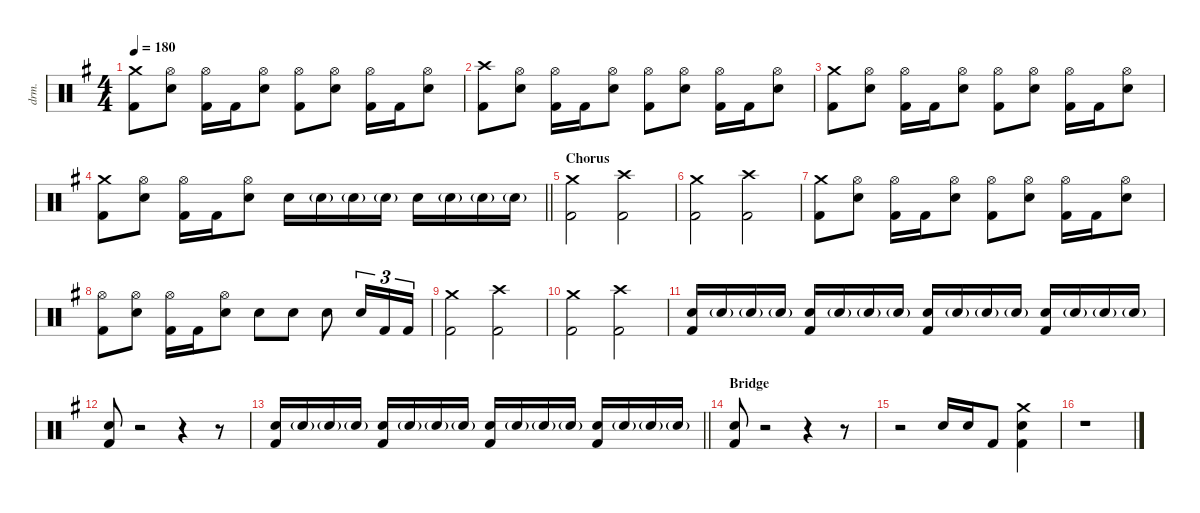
\defaultSystemsLayout 4
\hideDynamics
\bracketExtendMode nobrackets
\otherSystemsTrackNameOrientation horizontal
\track ("Lars Ulrich" "drm.") {instrument percussion}
\staff {score}
\articulation defaults
\ts (4 4)
\tempo 180
\clef neutral
\ks eminor
("Crash medium (hit)"{acc forcenatural} "Kick (hit) 2"{acc forcenatural}).8{dy f beam Down} ("Hi-Hat (open)"{acc forcenatural} "Snare (hit) 2"{acc forcenatural}).8{beam Down} ("Hi-Hat (open)"{acc forcenatural} "Kick (hit) 2"{acc forcenatural}).16{beam Down} "Kick (hit) 2"{acc forcenatural}.16{beam Down} ("Hi-Hat (open)"{acc forcenatural} "Snare (hit) 2"{acc forcenatural}).8{beam Down} ("Hi-Hat (open)"{acc forcenatural} "Kick (hit) 2"{acc forcenatural}).8{beam Down} ("Hi-Hat (open)"{acc forcenatural} "Snare (hit) 2"{acc forcenatural}).8{beam Down} ("Hi-Hat (open)"{acc forcenatural} "Kick (hit) 2"{acc forcenatural}).16{beam Down} "Kick (hit) 2"{acc forcenatural}.16{beam Down} ("Hi-Hat (open)"{acc forcenatural} "Snare (hit) 2"{acc forcenatural}).8{beam Down} |
("Crash high (hit)"{acc forcenatural} "Kick (hit) 2"{acc forcenatural}).8{beam Down} ("Hi-Hat (open)"{acc forcenatural} "Snare (hit) 2"{acc forcenatural}).8{beam Down} ("Hi-Hat (open)"{acc forcenatural} "Kick (hit) 2"{acc forcenatural}).16{beam Down} "Kick (hit) 2"{acc forcenatural}.16{beam Down} ("Hi-Hat (open)"{acc forcenatural} "Snare (hit) 2"{acc forcenatural}).8{beam Down} ("Hi-Hat (open)"{acc forcenatural} "Kick (hit) 2"{acc forcenatural}).8{beam Down} ("Hi-Hat (open)"{acc forcenatural} "Snare (hit) 2"{acc forcenatural}).8{beam Down} ("Hi-Hat (open)"{acc forcenatural} "Kick (hit) 2"{acc forcenatural}).16{beam Down} "Kick (hit) 2"{acc forcenatural}.16{beam Down} ("Hi-Hat (open)"{acc forcenatural} "Snare (hit) 2"{acc forcenatural}).8{beam Down} |
("Crash medium (hit)"{acc forcenatural} "Kick (hit) 2"{acc forcenatural}).8{beam Down} ("Hi-Hat (open)"{acc forcenatural} "Snare (hit) 2"{acc forcenatural}).8{beam Down} ("Hi-Hat (open)"{acc forcenatural} "Kick (hit) 2"{acc forcenatural}).16{beam Down} "Kick (hit) 2"{acc forcenatural}.16{beam Down} ("Hi-Hat (open)"{acc forcenatural} "Snare (hit) 2"{acc forcenatural}).8{beam Down} ("Hi-Hat (open)"{acc forcenatural} "Kick (hit) 2"{acc forcenatural}).8{beam Down} ("Hi-Hat (open)"{acc forcenatural} "Snare (hit) 2"{acc forcenatural}).8{beam Down} ("Hi-Hat (open)"{acc forcenatural} "Kick (hit) 2"{acc forcenatural}).16{beam Down} "Kick (hit) 2"{acc forcenatural}.16{beam Down} ("Hi-Hat (open)"{acc forcenatural} "Snare (hit) 2"{acc forcenatural}).8{beam Down} |
\barLineRight lightlight
("Crash medium (hit)"{acc forcenatural} "Kick (hit) 2"{acc forcenatural}).8{beam Down} ("Hi-Hat (open)"{acc forcenatural} "Snare (hit) 2"{acc forcenatural}).8{beam Down} ("Hi-Hat (open)"{acc forcenatural} "Kick (hit) 2"{acc forcenatural}).16{beam Down} "Kick (hit) 2"{acc forcenatural}.16{beam Down} ("Hi-Hat (open)"{acc forcenatural} "Snare (hit) 2"{acc forcenatural}).8{beam Down} "Snare (hit) 2"{acc forcenatural}.16{beam Down} "Snare (hit) 2"{g acc forcenatural}.16{dy ff beam Down} "Snare (hit) 2"{g acc forcenatural}.16{beam Down} "Snare (hit) 2"{g acc forcenatural}.16{beam Down} "Snare (hit) 2"{acc forcenatural}.16{dy f beam Down} "Snare (hit) 2"{g acc forcenatural}.16{dy ff beam Down} "Snare (hit) 2"{g acc forcenatural}.16{beam Down} "Snare (hit) 2"{g acc forcenatural}.16{beam Down} |
\section ("" "Chorus")
("Crash medium (hit)"{acc forcenatural} "Kick (hit) 2"{acc forcenatural}).2{dy f beam Down} ("Crash high (hit)"{acc forcenatural} "Kick (hit) 2"{acc forcenatural}).2{beam Down} |
("Crash medium (hit)"{acc forcenatural} "Kick (hit) 2"{acc forcenatural}).2{beam Down} ("Crash high (hit)"{acc forcenatural} "Kick (hit) 2"{acc forcenatural}).2{beam Down} |
("Crash medium (hit)"{acc forcenatural} "Kick (hit) 2"{acc forcenatural}).8{beam Down} ("Hi-Hat (open)"{acc forcenatural} "Snare (hit) 2"{acc forcenatural}).8{beam Down} ("Hi-Hat (open)"{acc forcenatural} "Kick (hit) 2"{acc forcenatural}).16{beam Down} "Kick (hit) 2"{acc forcenatural}.16{beam Down} ("Hi-Hat (open)"{acc forcenatural} "Snare (hit) 2"{acc forcenatural}).8{beam Down} ("Hi-Hat (open)"{acc forcenatural} "Kick (hit) 2"{acc forcenatural}).8{beam Down} ("Hi-Hat (open)"{acc forcenatural} "Snare (hit) 2"{acc forcenatural}).8{beam Down} ("Hi-Hat (open)"{acc forcenatural} "Kick (hit) 2"{acc forcenatural}).16{beam Down} "Kick (hit) 2"{acc forcenatural}.16{beam Down} ("Hi-Hat (open)"{acc forcenatural} "Snare (hit) 2"{acc forcenatural}).8{beam Down} |
("Hi-Hat (open)"{acc forcenatural} "Kick (hit) 2"{acc forcenatural}).8{beam Down} ("Hi-Hat (open)"{acc forcenatural} "Snare (hit) 2"{acc forcenatural}).8{beam Down} ("Hi-Hat (open)"{acc forcenatural} "Kick (hit) 2"{acc forcenatural}).16{beam Down} "Kick (hit) 2"{acc forcenatural}.16{beam Down} ("Hi-Hat (open)"{acc forcenatural} "Snare (hit) 2"{acc forcenatural}).8{beam Down} "Snare (hit) 2"{acc forcenatural}.8{beam Down} "Snare (hit) 2"{acc forcenatural}.8{beam Down} "Snare (hit) 2"{acc forcenatural}.8{beam Down} "Snare (hit) 2"{acc forcenatural}.16{tu (3 2) beam Up} "Kick (hit) 2"{acc forcenatural}.16{tu (3 2) beam Up} "Kick (hit) 2"{acc forcenatural}.16{tu (3 2) beam Up} |
("Crash medium (hit)"{acc forcenatural} "Kick (hit) 2"{acc forcenatural}).2{beam Down} ("Crash high (hit)"{acc forcenatural} "Kick (hit) 2"{acc forcenatural}).2{beam Down} |
("Crash medium (hit)"{acc forcenatural} "Kick (hit) 2"{acc forcenatural}).2{beam Down} ("Crash high (hit)"{acc forcenatural} "Kick (hit) 2"{acc forcenatural}).2{beam Down} |
("Snare (hit) 2"{acc forcenatural} "Kick (hit) 2"{acc forcenatural}).16{beam Up} "Snare (hit) 2"{g acc forcenatural}.16{dy ff beam Up} "Snare (hit) 2"{g acc forcenatural}.16{beam Up} "Snare (hit) 2"{g acc forcenatural}.16{beam Up} ("Snare (hit) 2"{acc forcenatural} "Kick (hit) 2"{acc forcenatural}).16{dy f beam Up} "Snare (hit) 2"{g acc forcenatural}.16{dy ff beam Up} "Snare (hit) 2"{g acc forcenatural}.16{beam Up} "Snare (hit) 2"{g acc forcenatural}.16{beam Up} ("Snare (hit) 2"{acc forcenatural} "Kick (hit) 2"{acc forcenatural}).16{dy f beam Up} "Snare (hit) 2"{g acc forcenatural}.16{dy ff beam Up} "Snare (hit) 2"{g acc forcenatural}.16{beam Up} "Snare (hit) 2"{g acc forcenatural}.16{beam Up} ("Snare (hit) 2"{acc forcenatural} "Kick (hit) 2"{acc forcenatural}).16{dy f beam Up} "Snare (hit) 2"{g acc forcenatural}.16{dy ff beam Up} "Snare (hit) 2"{g acc forcenatural}.16{beam Up} "Snare (hit) 2"{g acc forcenatural}.16{beam Up} |
("Snare (hit) 2"{acc forcenatural} "Kick (hit) 2"{acc forcenatural}).8{dy f beam Up} r.2{beam Up} r.4{beam Up} r.8{beam Up} |
\barLineRight lightlight
("Snare (hit) 2"{acc forcenatural} "Kick (hit) 2"{acc forcenatural}).16{beam Up} "Snare (hit) 2"{g acc forcenatural}.16{dy ff beam Up} "Snare (hit) 2"{g acc forcenatural}.16{beam Up} "Snare (hit) 2"{g acc forcenatural}.16{beam Up} ("Snare (hit) 2"{acc forcenatural} "Kick (hit) 2"{acc forcenatural}).16{dy f beam Up} "Snare (hit) 2"{g acc forcenatural}.16{dy ff beam Up} "Snare (hit) 2"{g acc forcenatural}.16{beam Up} "Snare (hit) 2"{g acc forcenatural}.16{beam Up} ("Snare (hit) 2"{acc forcenatural} "Kick (hit) 2"{acc forcenatural}).16{dy f beam Up} "Snare (hit) 2"{g acc forcenatural}.16{dy ff beam Up} "Snare (hit) 2"{g acc forcenatural}.16{beam Up} "Snare (hit) 2"{g acc forcenatural}.16{beam Up} ("Snare (hit) 2"{acc forcenatural} "Kick (hit) 2"{acc forcenatural}).16{dy f beam Up} "Snare (hit) 2"{g acc forcenatural}.16{dy ff beam Up} "Snare (hit) 2"{g acc forcenatural}.16{beam Up} "Snare (hit) 2"{g acc forcenatural}.16{beam Up} |
\section ("" "Bridge")
("Snare (hit) 2"{acc forcenatural} "Kick (hit) 2"{acc forcenatural}).8{dy f beam Up} r.2{beam Up} r.4{beam Up} r.8{beam Up} |
r.2{beam Down} "Snare (hit) 2"{acc forcenatural}.16{beam Up} "Snare (hit) 2"{acc forcenatural}.16{beam Up} "Kick (hit) 2"{acc forcenatural}.8{beam Up} ("Crash medium (hit)"{acc forcenatural} "Snare (hit) 2"{acc forcenatural} "Kick (hit) 2"{acc forcenatural}).4{beam Down} |
r.1{beam Down}
